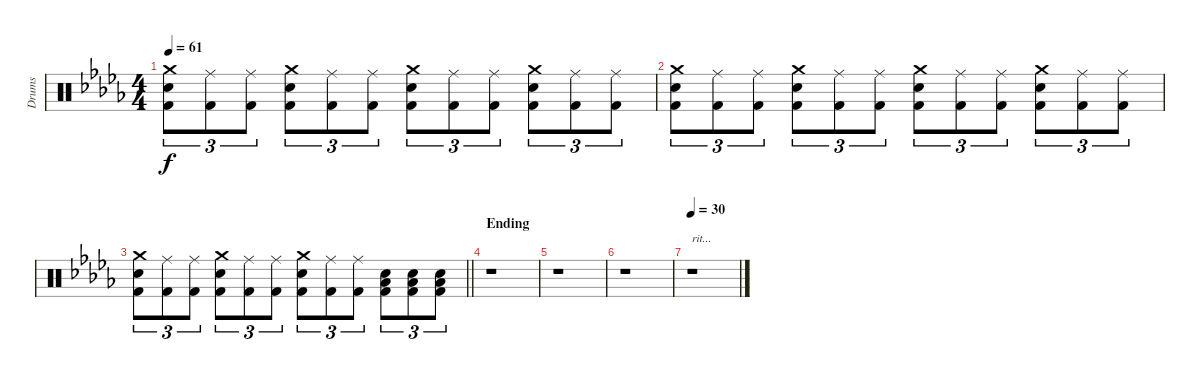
\track ("Drums" "Drums") {instrument percussion}
\staff {score}
\articulation defaults
\ts (4 4)
\tempo 61
\clef neutral
\ks bbminor
("Crash medium (hit)" "Electric Snare (hit)" "Kick (hit) 2").8{tu (3 2) dy f} ("Ride (middle)" "Kick (hit) 2").8{tu (3 2)} ("Ride (middle)" "Kick (hit) 2").8{tu (3 2)} ("Crash medium (hit)" "Electric Snare (hit)" "Kick (hit) 2").8{tu (3 2)} ("Ride (middle)" "Kick (hit) 2").8{tu (3 2)} ("Ride (middle)" "Kick (hit) 2").8{tu (3 2)} ("Crash medium (hit)" "Electric Snare (hit)" "Kick (hit) 2").8{tu (3 2)} ("Ride (middle)" "Kick (hit) 2").8{tu (3 2)} ("Ride (middle)" "Kick (hit) 2").8{tu (3 2)} ("Crash medium (hit)" "Electric Snare (hit)" "Kick (hit) 2").8{tu (3 2)} ("Ride (middle)" "Kick (hit) 2").8{tu (3 2)} ("Ride (middle)" "Kick (hit) 2").8{tu (3 2)} |
("Crash medium (hit)" "Electric Snare (hit)" "Kick (hit) 2").8{tu (3 2)} ("Ride (middle)" "Kick (hit) 2").8{tu (3 2)} ("Ride (middle)" "Kick (hit) 2").8{tu (3 2)} ("Crash medium (hit)" "Electric Snare (hit)" "Kick (hit) 2").8{tu (3 2)} ("Ride (middle)" "Kick (hit) 2").8{tu (3 2)} ("Ride (middle)" "Kick (hit) 2").8{tu (3 2)} ("Crash medium (hit)" "Electric Snare (hit)" "Kick (hit) 2").8{tu (3 2)} ("Ride (middle)" "Kick (hit) 2").8{tu (3 2)} ("Ride (middle)" "Kick (hit) 2").8{tu (3 2)} ("Crash medium (hit)" "Electric Snare (hit)" "Kick (hit) 2").8{tu (3 2)} ("Ride (middle)" "Kick (hit) 2").8{tu (3 2)} ("Ride (middle)" "Kick (hit) 2").8{tu (3 2)} |
\barLineRight lightlight
("Crash medium (hit)" "Electric Snare (hit)" "Kick (hit) 2").8{tu (3 2)} ("Ride (middle)" "Kick (hit) 2").8{tu (3 2)} ("Ride (middle)" "Kick (hit) 2").8{tu (3 2)} ("Crash medium (hit)" "Electric Snare (hit)" "Kick (hit) 2").8{tu (3 2)} ("Ride (middle)" "Kick (hit) 2").8{tu (3 2)} ("Ride (middle)" "Kick (hit) 2").8{tu (3 2)} ("Crash medium (hit)" "Electric Snare (hit)" "Kick (hit) 2").8{tu (3 2)} ("Ride (middle)" "Kick (hit) 2").8{tu (3 2)} ("Ride (middle)" "Kick (hit) 2").8{tu (3 2)} ("Electric Snare (hit)" "Low Floor Tom (hit)" "Kick (hit) 2").8{tu (3 2)} ("Electric Snare (hit)" "Low Floor Tom (hit)" "Kick (hit) 2").8{tu (3 2)} ("Electric Snare (hit)" "Low Floor Tom (hit)" "Kick (hit) 2").8{tu (3 2)} |
\section ("" "Ending")
r.1 |
r.1 |
r.1 |
\tempo 30
r.1{txt "rit..."}
